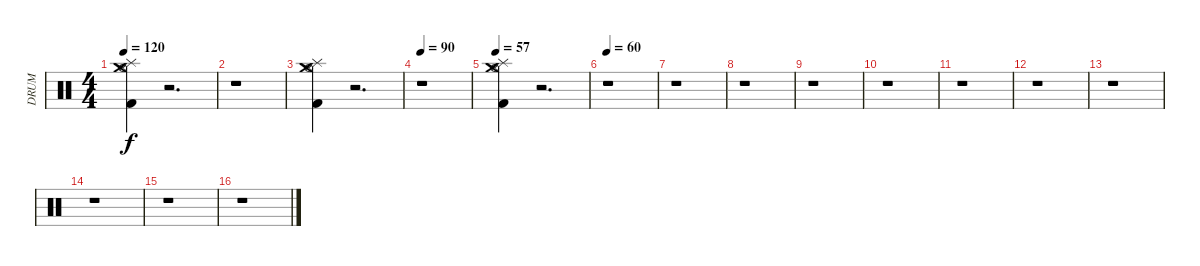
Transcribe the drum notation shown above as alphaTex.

\track (" DRUM" " DRUM") {instrument percussion}
\staff {score}
\articulation defaults
\ts (4 4)
\tempo 120
\clef neutral
\ks c
("Crash medium (hit)" "Splash (hit)" "Hi-Hat (open)" "Kick (hit) 2").4{dy f} r.2{d} |
r.1 |
("Crash medium (hit)" "Splash (hit)" "Hi-Hat (open)" "Kick (hit) 2").4 r.2{d} |
\tempo 90
r.1 |
\tempo 57
("Crash medium (hit)" "Splash (hit)" "Hi-Hat (open)" "Kick (hit) 2").4 r.2{d} |
\tempo 60
r.1 |
r.1 |
r.1 |
r.1 |
r.1 |
r.1 |
r.1 |
r.1 |
r.1 |
r.1 |
r.1
